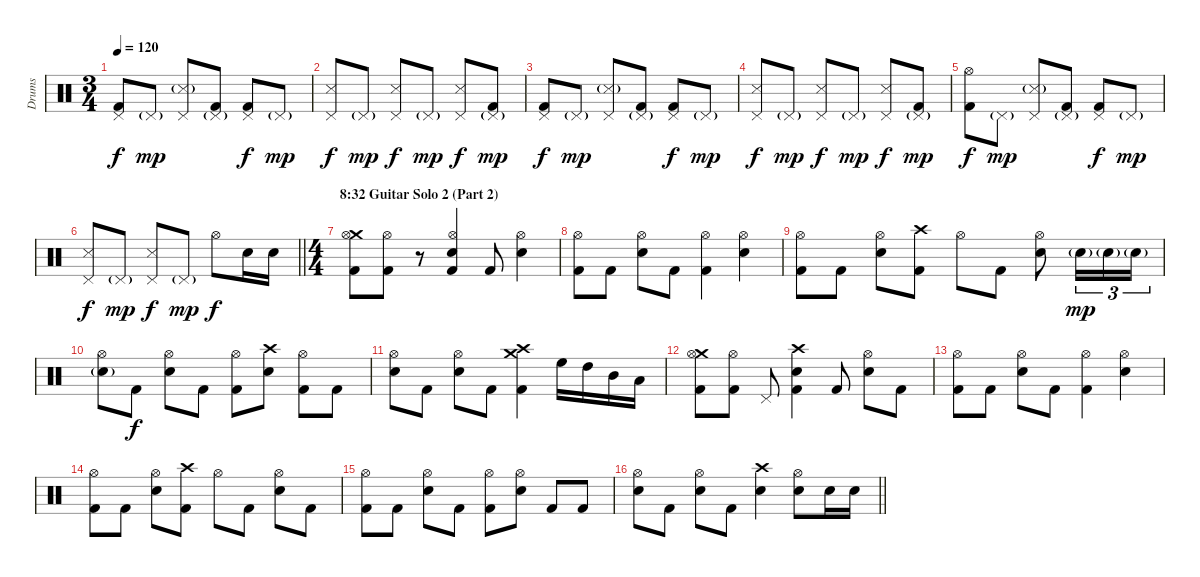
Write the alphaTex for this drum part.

\track ("Drums" "Drums") {instrument percussion}
\staff {score}
\articulation defaults
\ts (3 4)
\tempo 120
\clef neutral
\ks c
("Pedal Hi-Hat (hit)" "Kick (hit) 2").8{dy f} "Pedal Hi-Hat (hit)"{g}.8{dy mp} ("Pedal Hi-Hat (hit)" "Snare (side stick) 3"{g}).8 ("Pedal Hi-Hat (hit)"{g} "Kick (hit) 2").8 ("Pedal Hi-Hat (hit)" "Kick (hit) 2").8{dy f} "Pedal Hi-Hat (hit)"{g}.8{dy mp} |
("Pedal Hi-Hat (hit)" "Snare (side stick) 3").8{dy f} "Pedal Hi-Hat (hit)"{g}.8{dy mp} ("Pedal Hi-Hat (hit)" "Snare (side stick) 3").8{dy f} "Pedal Hi-Hat (hit)"{g}.8{dy mp} ("Pedal Hi-Hat (hit)" "Snare (side stick) 3").8{dy f} ("Pedal Hi-Hat (hit)"{g} "Kick (hit) 2").8{dy mp} |
("Pedal Hi-Hat (hit)" "Kick (hit) 2").8{dy f} "Pedal Hi-Hat (hit)"{g}.8{dy mp} ("Pedal Hi-Hat (hit)" "Snare (side stick) 3"{g}).8 ("Pedal Hi-Hat (hit)"{g} "Kick (hit) 2").8 ("Pedal Hi-Hat (hit)" "Kick (hit) 2").8{dy f} "Pedal Hi-Hat (hit)"{g}.8{dy mp} |
("Pedal Hi-Hat (hit)" "Snare (side stick) 3").8{dy f} "Pedal Hi-Hat (hit)"{g}.8{dy mp} ("Pedal Hi-Hat (hit)" "Snare (side stick) 3").8{dy f} "Pedal Hi-Hat (hit)"{g}.8{dy mp} ("Pedal Hi-Hat (hit)" "Snare (side stick) 3").8{dy f} ("Pedal Hi-Hat (hit)"{g} "Kick (hit) 2").8{dy mp} |
("Hi-Hat (open)" "Kick (hit) 2").8{dy f} "Pedal Hi-Hat (hit)"{g}.8{dy mp} ("Pedal Hi-Hat (hit)" "Snare (side stick) 3"{g}).8 ("Pedal Hi-Hat (hit)"{g} "Kick (hit) 2").8 ("Pedal Hi-Hat (hit)" "Kick (hit) 2").8{dy f} "Pedal Hi-Hat (hit)"{g}.8{dy mp} |
\barLineRight lightlight
("Pedal Hi-Hat (hit)" "Snare (side stick) 3").8{dy f} "Pedal Hi-Hat (hit)"{g}.8{dy mp} ("Pedal Hi-Hat (hit)" "Snare (side stick) 3").8{dy f} "Pedal Hi-Hat (hit)"{g}.8{dy mp} "Hi-Hat (open)".8{dy f} "Snare (hit) 2".16 "Snare (hit) 2".16 |
\ts (4 4)
\section ("" "8:32 Guitar Solo 2 (Part 2)")
("Crash medium (hit)" "Hi-Hat (open)" "Kick (hit) 2").8 ("Hi-Hat (open)" "Kick (hit) 2").8 r.8 ("Hi-Hat (open)" "Snare (hit) 2" "Kick (hit) 2").4 "Kick (hit) 2".8 ("Hi-Hat (open)" "Snare (hit) 2").4 |
("Hi-Hat (open)" "Kick (hit) 2").8 "Kick (hit) 2".8 ("Hi-Hat (open)" "Snare (hit) 2").8 "Kick (hit) 2".8 ("Hi-Hat (open)" "Kick (hit) 2").4 ("Hi-Hat (open)" "Snare (hit) 2").4 |
("Hi-Hat (open)" "Kick (hit) 2").8 "Kick (hit) 2".8 ("Hi-Hat (open)" "Snare (hit) 2").8 ("Crash high (hit)" "Kick (hit) 2").8 "Hi-Hat (open)".8 "Kick (hit) 2".8 ("Hi-Hat (open)" "Snare (hit) 2").8 "Snare (hit) 2"{g}.16{tu (3 2) dy mp} "Snare (hit) 2"{g}.16{tu (3 2)} "Snare (hit) 2"{g}.16{tu (3 2)} |
("Hi-Hat (open)" "Snare (hit) 2"{g}).8 "Kick (hit) 2".8{dy f} ("Hi-Hat (open)" "Snare (hit) 2").8 "Kick (hit) 2".8 ("Hi-Hat (open)" "Kick (hit) 2").8 ("Crash high (hit)" "Snare (hit) 2").8 ("Hi-Hat (open)" "Kick (hit) 2").8 "Kick (hit) 2".8 |
("Hi-Hat (open)" "Snare (hit) 2").8 "Kick (hit) 2".8 ("Hi-Hat (open)" "Snare (hit) 2").8 "Kick (hit) 2".8 ("Crash medium (hit)" "Crash high (hit)" "Kick (hit) 2").4 "High Floor Tom (hit)".16 "High Tom (hit)".16 "Mid Tom (hit)".16 "Low Tom (hit)".16 |
("Crash medium (hit)" "Hi-Hat (open)" "Kick (hit) 2").8 ("Hi-Hat (open)" "Kick (hit) 2").8 "Pedal Hi-Hat (hit)".8 ("Crash high (hit)" "Snare (hit) 2" "Kick (hit) 2").4 "Kick (hit) 2".8 ("Hi-Hat (open)" "Snare (hit) 2").8 "Kick (hit) 2".8 |
("Hi-Hat (open)" "Kick (hit) 2").8 "Kick (hit) 2".8 ("Hi-Hat (open)" "Snare (hit) 2").8 "Kick (hit) 2".8 ("Hi-Hat (open)" "Kick (hit) 2").4 ("Hi-Hat (open)" "Snare (hit) 2").4 |
("Hi-Hat (open)" "Kick (hit) 2").8 "Kick (hit) 2".8 ("Hi-Hat (open)" "Snare (hit) 2").8 ("Crash high (hit)" "Kick (hit) 2").8 "Hi-Hat (open)".8 "Kick (hit) 2".8 ("Hi-Hat (open)" "Snare (hit) 2").8 "Kick (hit) 2".8 |
("Hi-Hat (open)" "Kick (hit) 2").8 "Kick (hit) 2".8 ("Hi-Hat (open)" "Snare (hit) 2").8 "Kick (hit) 2".8 ("Hi-Hat (open)" "Kick (hit) 2").8 ("Hi-Hat (open)" "Snare (hit) 2").8 "Kick (hit) 2".8 "Kick (hit) 2".8 |
\barLineRight lightlight
("Hi-Hat (open)" "Snare (hit) 2").8 "Kick (hit) 2".8 ("Hi-Hat (open)" "Snare (hit) 2").8 "Kick (hit) 2".8 ("Crash high (hit)" "Snare (hit) 2").4 ("Hi-Hat (open)" "Snare (hit) 2").8 "Snare (hit) 2".16 "Snare (hit) 2".16
